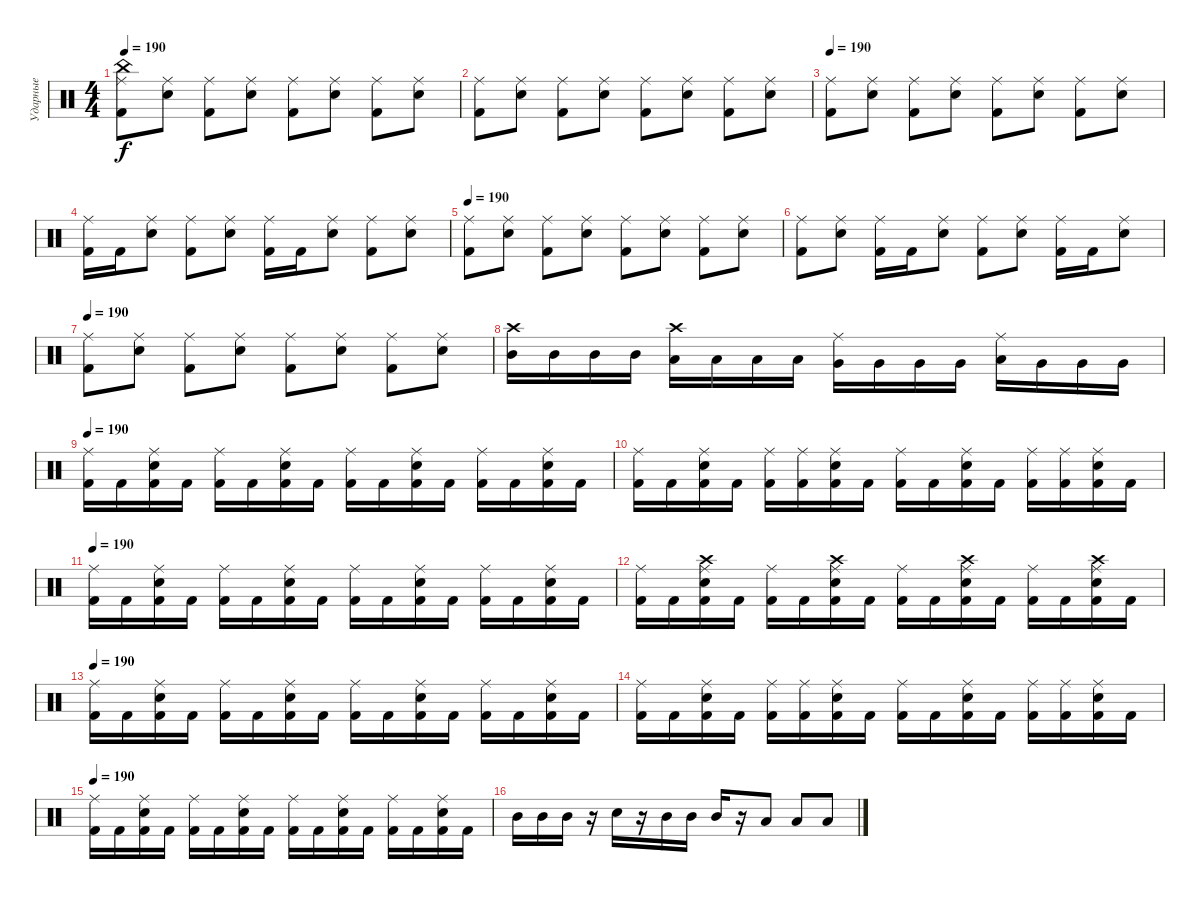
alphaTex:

\track ("Ударные" "Ударные") {instrument percussion}
\staff {score}
\articulation defaults
\ts (4 4)
\tempo 190
\clef neutral
\ks c
("Kick (hit) 2" "Ride (middle)" "China (hit)").8{dy f} ("Electric Snare (hit)" "Ride (middle)").8 ("Kick (hit) 2" "Ride (middle)").8 ("Electric Snare (hit)" "Ride (middle)").8 ("Kick (hit) 2" "Ride (middle)").8 ("Electric Snare (hit)" "Ride (middle)").8 ("Kick (hit) 2" "Ride (middle)").8 ("Electric Snare (hit)" "Ride (middle)").8 |
("Kick (hit) 2" "Ride (middle)").8 ("Electric Snare (hit)" "Ride (middle)").8 ("Kick (hit) 2" "Ride (middle)").8 ("Electric Snare (hit)" "Ride (middle)").8 ("Kick (hit) 2" "Ride (middle)").8 ("Electric Snare (hit)" "Ride (middle)").8 ("Kick (hit) 2" "Ride (middle)").8 ("Electric Snare (hit)" "Ride (middle)").8 |
\tempo 190
("Kick (hit) 2" "Ride (middle)").8 ("Electric Snare (hit)" "Ride (middle)").8 ("Kick (hit) 2" "Ride (middle)").8 ("Electric Snare (hit)" "Ride (middle)").8 ("Kick (hit) 2" "Ride (middle)").8 ("Electric Snare (hit)" "Ride (middle)").8 ("Kick (hit) 2" "Ride (middle)").8 ("Electric Snare (hit)" "Ride (middle)").8 |
("Kick (hit) 2" "Ride (middle)").16 "Kick (hit) 2".16 ("Electric Snare (hit)" "Ride (middle)").8 ("Kick (hit) 2" "Ride (middle)").8 ("Electric Snare (hit)" "Ride (middle)").8 ("Kick (hit) 2" "Ride (middle)").16 "Kick (hit) 2".16 ("Electric Snare (hit)" "Ride (middle)").8 ("Kick (hit) 2" "Ride (middle)").8 ("Electric Snare (hit)" "Ride (middle)").8 |
\tempo 190
("Kick (hit) 2" "Ride (middle)").8 ("Electric Snare (hit)" "Ride (middle)").8 ("Kick (hit) 2" "Ride (middle)").8 ("Electric Snare (hit)" "Ride (middle)").8 ("Kick (hit) 2" "Ride (middle)").8 ("Electric Snare (hit)" "Ride (middle)").8 ("Kick (hit) 2" "Ride (middle)").8 ("Electric Snare (hit)" "Ride (middle)").8 |
("Kick (hit) 2" "Ride (middle)").8 ("Electric Snare (hit)" "Ride (middle)").8 ("Kick (hit) 2" "Ride (middle)").16 "Kick (hit) 2".16 ("Electric Snare (hit)" "Ride (middle)").8 ("Kick (hit) 2" "Ride (middle)").8 ("Electric Snare (hit)" "Ride (middle)").8 ("Kick (hit) 2" "Ride (middle)").16 "Kick (hit) 2".16 ("Electric Snare (hit)" "Ride (middle)").8 |
\tempo 190
("Kick (hit) 2" "Ride (middle)").8 ("Electric Snare (hit)" "Ride (middle)").8 ("Kick (hit) 2" "Ride (middle)").8 ("Electric Snare (hit)" "Ride (middle)").8 ("Kick (hit) 2" "Ride (middle)").8 ("Electric Snare (hit)" "Ride (middle)").8 ("Kick (hit) 2" "Ride (middle)").8 ("Electric Snare (hit)" "Ride (middle)").8 |
("Mid Tom (hit)" "Crash high (hit)").16 "Mid Tom (hit)".16 "Mid Tom (hit)".16 "Mid Tom (hit)".16 ("Low Tom (hit)" "Crash high (hit)").16 "Low Tom (hit)".16 "Low Tom (hit)".16 "Low Tom (hit)".16 ("Very Low Tom (hit)" "Ride (middle)").16 "Very Low Tom (hit)".16 "Very Low Tom (hit)".16 "Very Low Tom (hit)".16 ("Low Floor Tom (hit)" "Ride (middle)").16 "Very Low Tom (hit)".16 "Very Low Tom (hit)".16 "Very Low Tom (hit)".16 |
\tempo 190
("Kick (hit) 2" "Ride (middle)").16 "Kick (hit) 2".16 ("Kick (hit) 2" "Electric Snare (hit)" "Ride (middle)").16 "Kick (hit) 2".16 ("Kick (hit) 2" "Ride (middle)").16 "Kick (hit) 2".16 ("Kick (hit) 2" "Electric Snare (hit)" "Ride (middle)").16 "Kick (hit) 2".16 ("Kick (hit) 2" "Ride (middle)").16 "Kick (hit) 2".16 ("Kick (hit) 2" "Electric Snare (hit)" "Ride (middle)").16 "Kick (hit) 2".16 ("Kick (hit) 2" "Ride (middle)").16 "Kick (hit) 2".16 ("Kick (hit) 2" "Electric Snare (hit)" "Ride (middle)").16 "Kick (hit) 2".16 |
("Kick (hit) 2" "Ride (middle)").16 "Kick (hit) 2".16 ("Kick (hit) 2" "Electric Snare (hit)" "Ride (middle)").16 "Kick (hit) 2".16 ("Kick (hit) 2" "Ride (middle)").16 ("Kick (hit) 2" "Ride (middle)").16 ("Kick (hit) 2" "Electric Snare (hit)" "Ride (middle)").16 "Kick (hit) 2".16 ("Kick (hit) 2" "Ride (middle)").16 "Kick (hit) 2".16 ("Kick (hit) 2" "Electric Snare (hit)" "Ride (middle)").16 "Kick (hit) 2".16 ("Kick (hit) 2" "Ride (middle)").16 ("Kick (hit) 2" "Ride (middle)").16 ("Kick (hit) 2" "Electric Snare (hit)" "Ride (middle)").16 "Kick (hit) 2".16 |
\tempo 190
("Kick (hit) 2" "Ride (middle)").16 "Kick (hit) 2".16 ("Kick (hit) 2" "Electric Snare (hit)" "Ride (middle)").16 "Kick (hit) 2".16 ("Kick (hit) 2" "Ride (middle)").16 "Kick (hit) 2".16 ("Kick (hit) 2" "Electric Snare (hit)" "Ride (middle)").16 "Kick (hit) 2".16 ("Kick (hit) 2" "Ride (middle)").16 "Kick (hit) 2".16 ("Kick (hit) 2" "Electric Snare (hit)" "Ride (middle)").16 "Kick (hit) 2".16 ("Kick (hit) 2" "Ride (middle)").16 "Kick (hit) 2".16 ("Kick (hit) 2" "Electric Snare (hit)" "Ride (middle)").16 "Kick (hit) 2".16 |
("Kick (hit) 2" "Ride (middle)").16 "Kick (hit) 2".16 ("Kick (hit) 2" "Electric Snare (hit)" "Ride (middle)" "Crash high (hit)").16 "Kick (hit) 2".16 ("Kick (hit) 2" "Ride (middle)").16 "Kick (hit) 2".16 ("Kick (hit) 2" "Electric Snare (hit)" "Ride (middle)" "Crash high (hit)").16 "Kick (hit) 2".16 ("Kick (hit) 2" "Ride (middle)").16 "Kick (hit) 2".16 ("Kick (hit) 2" "Electric Snare (hit)" "Ride (middle)" "Crash high (hit)").16 "Kick (hit) 2".16 ("Kick (hit) 2" "Ride (middle)").16 "Kick (hit) 2".16 ("Kick (hit) 2" "Electric Snare (hit)" "Ride (middle)" "Crash high (hit)").16 "Kick (hit) 2".16 |
\tempo 190
("Kick (hit) 2" "Ride (middle)").16 "Kick (hit) 2".16 ("Kick (hit) 2" "Electric Snare (hit)" "Ride (middle)").16 "Kick (hit) 2".16 ("Kick (hit) 2" "Ride (middle)").16 "Kick (hit) 2".16 ("Kick (hit) 2" "Electric Snare (hit)" "Ride (middle)").16 "Kick (hit) 2".16 ("Kick (hit) 2" "Ride (middle)").16 "Kick (hit) 2".16 ("Kick (hit) 2" "Electric Snare (hit)" "Ride (middle)").16 "Kick (hit) 2".16 ("Kick (hit) 2" "Ride (middle)").16 "Kick (hit) 2".16 ("Kick (hit) 2" "Electric Snare (hit)" "Ride (middle)").16 "Kick (hit) 2".16 |
("Kick (hit) 2" "Ride (middle)").16 "Kick (hit) 2".16 ("Kick (hit) 2" "Electric Snare (hit)" "Ride (middle)").16 "Kick (hit) 2".16 ("Kick (hit) 2" "Ride (middle)").16 ("Kick (hit) 2" "Ride (middle)").16 ("Kick (hit) 2" "Electric Snare (hit)" "Ride (middle)").16 "Kick (hit) 2".16 ("Kick (hit) 2" "Ride (middle)").16 "Kick (hit) 2".16 ("Kick (hit) 2" "Electric Snare (hit)" "Ride (middle)").16 "Kick (hit) 2".16 ("Kick (hit) 2" "Ride (middle)").16 ("Kick (hit) 2" "Ride (middle)").16 ("Kick (hit) 2" "Electric Snare (hit)" "Ride (middle)").16 "Kick (hit) 2".16 |
\tempo 190
("Kick (hit) 2" "Ride (middle)").16 "Kick (hit) 2".16 ("Kick (hit) 2" "Electric Snare (hit)" "Ride (middle)").16 "Kick (hit) 2".16 ("Kick (hit) 2" "Ride (middle)").16 "Kick (hit) 2".16 ("Kick (hit) 2" "Electric Snare (hit)" "Ride (middle)").16 "Kick (hit) 2".16 ("Kick (hit) 2" "Ride (middle)").16 "Kick (hit) 2".16 ("Kick (hit) 2" "Electric Snare (hit)" "Ride (middle)").16 "Kick (hit) 2".16 ("Kick (hit) 2" "Ride (middle)").16 "Kick (hit) 2".16 ("Kick (hit) 2" "Electric Snare (hit)" "Ride (middle)").16 "Kick (hit) 2".16 |
"Mid Tom (hit)".16 "Mid Tom (hit)".16 "Mid Tom (hit)".16 r.16 "Electric Snare (hit)".16 r.16 "Mid Tom (hit)".16 "Mid Tom (hit)".16 "Mid Tom (hit)".16 r.16 "Low Tom (hit)".8 "Low Tom (hit)".8 "Low Tom (hit)".8
